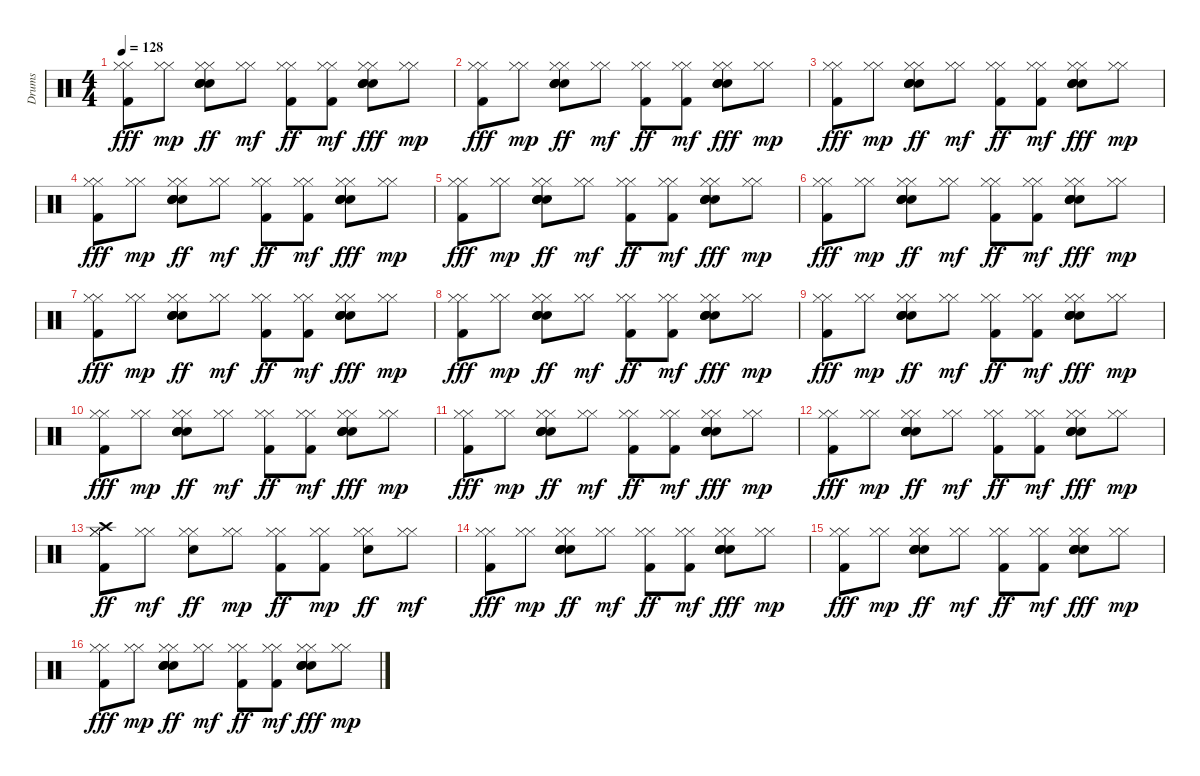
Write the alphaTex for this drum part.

\track ("Drums" "Drums") {instrument percussion}
\staff {score}
\articulation defaults
\ts (4 4)
\tempo 128
\clef neutral
\ks c
("Kick (hit) 2" "Hi-Hat (closed)" "Hi-Hat (closed)").8{dy fff} ("Hi-Hat (closed)" "Hi-Hat (closed)").8{dy mp} ("Hi-Hat (closed)" "Hi-Hat (closed)" "Snare (hit) 2" "Electric Snare (hit)" "Electric Snare (hit)" "Electric Snare (hit)").8{dy ff} ("Hi-Hat (closed)" "Hi-Hat (closed)").8{dy mf} ("Kick (hit) 2" "Hi-Hat (closed)" "Hi-Hat (closed)").8{dy ff} ("Kick (hit) 2" "Hi-Hat (closed)" "Hi-Hat (closed)").8{dy mf} ("Snare (hit) 2" "Hi-Hat (closed)" "Hi-Hat (closed)" "Electric Snare (hit)" "Electric Snare (hit)" "Electric Snare (hit)").8{dy fff} ("Hi-Hat (closed)" "Hi-Hat (closed)").8{dy mp} |
("Kick (hit) 2" "Hi-Hat (closed)" "Hi-Hat (closed)").8{dy fff} ("Hi-Hat (closed)" "Hi-Hat (closed)").8{dy mp} ("Hi-Hat (closed)" "Hi-Hat (closed)" "Snare (hit) 2" "Electric Snare (hit)" "Electric Snare (hit)" "Electric Snare (hit)").8{dy ff} ("Hi-Hat (closed)" "Hi-Hat (closed)").8{dy mf} ("Kick (hit) 2" "Hi-Hat (closed)" "Hi-Hat (closed)").8{dy ff} ("Kick (hit) 2" "Hi-Hat (closed)" "Hi-Hat (closed)").8{dy mf} ("Snare (hit) 2" "Hi-Hat (closed)" "Hi-Hat (closed)" "Electric Snare (hit)" "Electric Snare (hit)" "Electric Snare (hit)").8{dy fff} ("Hi-Hat (closed)" "Hi-Hat (closed)").8{dy mp} |
("Kick (hit) 2" "Hi-Hat (closed)" "Hi-Hat (closed)").8{dy fff} ("Hi-Hat (closed)" "Hi-Hat (closed)").8{dy mp} ("Hi-Hat (closed)" "Hi-Hat (closed)" "Snare (hit) 2" "Electric Snare (hit)" "Electric Snare (hit)" "Electric Snare (hit)").8{dy ff} ("Hi-Hat (closed)" "Hi-Hat (closed)").8{dy mf} ("Kick (hit) 2" "Hi-Hat (closed)" "Hi-Hat (closed)").8{dy ff} ("Kick (hit) 2" "Hi-Hat (closed)" "Hi-Hat (closed)").8{dy mf} ("Snare (hit) 2" "Hi-Hat (closed)" "Hi-Hat (closed)" "Electric Snare (hit)" "Electric Snare (hit)" "Electric Snare (hit)").8{dy fff} ("Hi-Hat (closed)" "Hi-Hat (closed)").8{dy mp} |
("Kick (hit) 2" "Hi-Hat (closed)" "Hi-Hat (closed)").8{dy fff} ("Hi-Hat (closed)" "Hi-Hat (closed)").8{dy mp} ("Hi-Hat (closed)" "Hi-Hat (closed)" "Snare (hit) 2" "Electric Snare (hit)" "Electric Snare (hit)" "Electric Snare (hit)").8{dy ff} ("Hi-Hat (closed)" "Hi-Hat (closed)").8{dy mf} ("Kick (hit) 2" "Hi-Hat (closed)" "Hi-Hat (closed)").8{dy ff} ("Kick (hit) 2" "Hi-Hat (closed)" "Hi-Hat (closed)").8{dy mf} ("Snare (hit) 2" "Hi-Hat (closed)" "Hi-Hat (closed)" "Electric Snare (hit)" "Electric Snare (hit)" "Electric Snare (hit)").8{dy fff} ("Hi-Hat (closed)" "Hi-Hat (closed)").8{dy mp} |
("Kick (hit) 2" "Hi-Hat (closed)" "Hi-Hat (closed)").8{dy fff} ("Hi-Hat (closed)" "Hi-Hat (closed)").8{dy mp} ("Hi-Hat (closed)" "Hi-Hat (closed)" "Snare (hit) 2" "Electric Snare (hit)" "Electric Snare (hit)" "Electric Snare (hit)").8{dy ff} ("Hi-Hat (closed)" "Hi-Hat (closed)").8{dy mf} ("Kick (hit) 2" "Hi-Hat (closed)" "Hi-Hat (closed)").8{dy ff} ("Kick (hit) 2" "Hi-Hat (closed)" "Hi-Hat (closed)").8{dy mf} ("Snare (hit) 2" "Hi-Hat (closed)" "Hi-Hat (closed)" "Electric Snare (hit)" "Electric Snare (hit)" "Electric Snare (hit)").8{dy fff} ("Hi-Hat (closed)" "Hi-Hat (closed)").8{dy mp} |
("Kick (hit) 2" "Hi-Hat (closed)" "Hi-Hat (closed)").8{dy fff} ("Hi-Hat (closed)" "Hi-Hat (closed)").8{dy mp} ("Hi-Hat (closed)" "Hi-Hat (closed)" "Snare (hit) 2" "Electric Snare (hit)" "Electric Snare (hit)" "Electric Snare (hit)").8{dy ff} ("Hi-Hat (closed)" "Hi-Hat (closed)").8{dy mf} ("Kick (hit) 2" "Hi-Hat (closed)" "Hi-Hat (closed)").8{dy ff} ("Kick (hit) 2" "Hi-Hat (closed)" "Hi-Hat (closed)").8{dy mf} ("Snare (hit) 2" "Hi-Hat (closed)" "Hi-Hat (closed)" "Electric Snare (hit)" "Electric Snare (hit)" "Electric Snare (hit)").8{dy fff} ("Hi-Hat (closed)" "Hi-Hat (closed)").8{dy mp} |
("Kick (hit) 2" "Hi-Hat (closed)" "Hi-Hat (closed)").8{dy fff} ("Hi-Hat (closed)" "Hi-Hat (closed)").8{dy mp} ("Hi-Hat (closed)" "Hi-Hat (closed)" "Snare (hit) 2" "Electric Snare (hit)" "Electric Snare (hit)" "Electric Snare (hit)").8{dy ff} ("Hi-Hat (closed)" "Hi-Hat (closed)").8{dy mf} ("Kick (hit) 2" "Hi-Hat (closed)" "Hi-Hat (closed)").8{dy ff} ("Kick (hit) 2" "Hi-Hat (closed)" "Hi-Hat (closed)").8{dy mf} ("Snare (hit) 2" "Hi-Hat (closed)" "Hi-Hat (closed)" "Electric Snare (hit)" "Electric Snare (hit)" "Electric Snare (hit)").8{dy fff} ("Hi-Hat (closed)" "Hi-Hat (closed)").8{dy mp} |
("Kick (hit) 2" "Hi-Hat (closed)" "Hi-Hat (closed)").8{dy fff} ("Hi-Hat (closed)" "Hi-Hat (closed)").8{dy mp} ("Hi-Hat (closed)" "Hi-Hat (closed)" "Snare (hit) 2" "Electric Snare (hit)" "Electric Snare (hit)" "Electric Snare (hit)").8{dy ff} ("Hi-Hat (closed)" "Hi-Hat (closed)").8{dy mf} ("Kick (hit) 2" "Hi-Hat (closed)" "Hi-Hat (closed)").8{dy ff} ("Kick (hit) 2" "Hi-Hat (closed)" "Hi-Hat (closed)").8{dy mf} ("Snare (hit) 2" "Hi-Hat (closed)" "Hi-Hat (closed)" "Electric Snare (hit)" "Electric Snare (hit)" "Electric Snare (hit)").8{dy fff} ("Hi-Hat (closed)" "Hi-Hat (closed)").8{dy mp} |
("Kick (hit) 2" "Hi-Hat (closed)" "Hi-Hat (closed)").8{dy fff} ("Hi-Hat (closed)" "Hi-Hat (closed)").8{dy mp} ("Hi-Hat (closed)" "Hi-Hat (closed)" "Snare (hit) 2" "Electric Snare (hit)" "Electric Snare (hit)" "Electric Snare (hit)").8{dy ff} ("Hi-Hat (closed)" "Hi-Hat (closed)").8{dy mf} ("Kick (hit) 2" "Hi-Hat (closed)" "Hi-Hat (closed)").8{dy ff} ("Kick (hit) 2" "Hi-Hat (closed)" "Hi-Hat (closed)").8{dy mf} ("Snare (hit) 2" "Hi-Hat (closed)" "Hi-Hat (closed)" "Electric Snare (hit)" "Electric Snare (hit)" "Electric Snare (hit)").8{dy fff} ("Hi-Hat (closed)" "Hi-Hat (closed)").8{dy mp} |
("Kick (hit) 2" "Hi-Hat (closed)" "Hi-Hat (closed)").8{dy fff} ("Hi-Hat (closed)" "Hi-Hat (closed)").8{dy mp} ("Hi-Hat (closed)" "Hi-Hat (closed)" "Snare (hit) 2" "Electric Snare (hit)" "Electric Snare (hit)" "Electric Snare (hit)").8{dy ff} ("Hi-Hat (closed)" "Hi-Hat (closed)").8{dy mf} ("Kick (hit) 2" "Hi-Hat (closed)" "Hi-Hat (closed)").8{dy ff} ("Kick (hit) 2" "Hi-Hat (closed)" "Hi-Hat (closed)").8{dy mf} ("Snare (hit) 2" "Hi-Hat (closed)" "Hi-Hat (closed)" "Electric Snare (hit)" "Electric Snare (hit)" "Electric Snare (hit)").8{dy fff} ("Hi-Hat (closed)" "Hi-Hat (closed)").8{dy mp} |
("Kick (hit) 2" "Hi-Hat (closed)" "Hi-Hat (closed)").8{dy fff} ("Hi-Hat (closed)" "Hi-Hat (closed)").8{dy mp} ("Hi-Hat (closed)" "Hi-Hat (closed)" "Snare (hit) 2" "Electric Snare (hit)" "Electric Snare (hit)" "Electric Snare (hit)").8{dy ff} ("Hi-Hat (closed)" "Hi-Hat (closed)").8{dy mf} ("Kick (hit) 2" "Hi-Hat (closed)" "Hi-Hat (closed)").8{dy ff} ("Kick (hit) 2" "Hi-Hat (closed)" "Hi-Hat (closed)").8{dy mf} ("Snare (hit) 2" "Hi-Hat (closed)" "Hi-Hat (closed)" "Electric Snare (hit)" "Electric Snare (hit)" "Electric Snare (hit)").8{dy fff} ("Hi-Hat (closed)" "Hi-Hat (closed)").8{dy mp} |
("Kick (hit) 2" "Hi-Hat (closed)" "Hi-Hat (closed)").8{dy fff} ("Hi-Hat (closed)" "Hi-Hat (closed)").8{dy mp} ("Hi-Hat (closed)" "Hi-Hat (closed)" "Snare (hit) 2" "Electric Snare (hit)" "Electric Snare (hit)" "Electric Snare (hit)").8{dy ff} ("Hi-Hat (closed)" "Hi-Hat (closed)").8{dy mf} ("Kick (hit) 2" "Hi-Hat (closed)" "Hi-Hat (closed)").8{dy ff} ("Kick (hit) 2" "Hi-Hat (closed)" "Hi-Hat (closed)").8{dy mf} ("Snare (hit) 2" "Hi-Hat (closed)" "Hi-Hat (closed)" "Electric Snare (hit)" "Electric Snare (hit)" "Electric Snare (hit)").8{dy fff} ("Hi-Hat (closed)" "Hi-Hat (closed)").8{dy mp} |
("Hi-Hat (closed)" "Kick (hit) 2" "Hi-Hat (closed)" "Crash high (hit)").8{dy ff} ("Hi-Hat (closed)" "Hi-Hat (closed)").8{dy mf} ("Snare (hit) 2" "Hi-Hat (closed)" "Hi-Hat (closed)").8{dy ff} ("Hi-Hat (closed)" "Hi-Hat (closed)").8{dy mp} ("Hi-Hat (closed)" "Hi-Hat (closed)" "Kick (hit) 2").8{dy ff} ("Hi-Hat (closed)" "Hi-Hat (closed)" "Kick (hit) 2").8{dy mp} ("Hi-Hat (closed)" "Snare (hit) 2" "Hi-Hat (closed)").8{dy ff} ("Hi-Hat (closed)" "Hi-Hat (closed)").8{dy mf} |
("Kick (hit) 2" "Hi-Hat (closed)" "Hi-Hat (closed)").8{dy fff} ("Hi-Hat (closed)" "Hi-Hat (closed)").8{dy mp} ("Hi-Hat (closed)" "Hi-Hat (closed)" "Snare (hit) 2" "Electric Snare (hit)" "Electric Snare (hit)" "Electric Snare (hit)").8{dy ff} ("Hi-Hat (closed)" "Hi-Hat (closed)").8{dy mf} ("Kick (hit) 2" "Hi-Hat (closed)" "Hi-Hat (closed)").8{dy ff} ("Kick (hit) 2" "Hi-Hat (closed)" "Hi-Hat (closed)").8{dy mf} ("Snare (hit) 2" "Hi-Hat (closed)" "Hi-Hat (closed)" "Electric Snare (hit)" "Electric Snare (hit)" "Electric Snare (hit)").8{dy fff} ("Hi-Hat (closed)" "Hi-Hat (closed)").8{dy mp} |
("Kick (hit) 2" "Hi-Hat (closed)" "Hi-Hat (closed)").8{dy fff} ("Hi-Hat (closed)" "Hi-Hat (closed)").8{dy mp} ("Hi-Hat (closed)" "Hi-Hat (closed)" "Snare (hit) 2" "Electric Snare (hit)" "Electric Snare (hit)" "Electric Snare (hit)").8{dy ff} ("Hi-Hat (closed)" "Hi-Hat (closed)").8{dy mf} ("Kick (hit) 2" "Hi-Hat (closed)" "Hi-Hat (closed)").8{dy ff} ("Kick (hit) 2" "Hi-Hat (closed)" "Hi-Hat (closed)").8{dy mf} ("Snare (hit) 2" "Hi-Hat (closed)" "Hi-Hat (closed)" "Electric Snare (hit)" "Electric Snare (hit)" "Electric Snare (hit)").8{dy fff} ("Hi-Hat (closed)" "Hi-Hat (closed)").8{dy mp} |
("Kick (hit) 2" "Hi-Hat (closed)" "Hi-Hat (closed)").8{dy fff} ("Hi-Hat (closed)" "Hi-Hat (closed)").8{dy mp} ("Hi-Hat (closed)" "Hi-Hat (closed)" "Snare (hit) 2" "Electric Snare (hit)" "Electric Snare (hit)" "Electric Snare (hit)").8{dy ff} ("Hi-Hat (closed)" "Hi-Hat (closed)").8{dy mf} ("Kick (hit) 2" "Hi-Hat (closed)" "Hi-Hat (closed)").8{dy ff} ("Kick (hit) 2" "Hi-Hat (closed)" "Hi-Hat (closed)").8{dy mf} ("Snare (hit) 2" "Hi-Hat (closed)" "Hi-Hat (closed)" "Electric Snare (hit)" "Electric Snare (hit)" "Electric Snare (hit)").8{dy fff} ("Hi-Hat (closed)" "Hi-Hat (closed)").8{dy mp}
